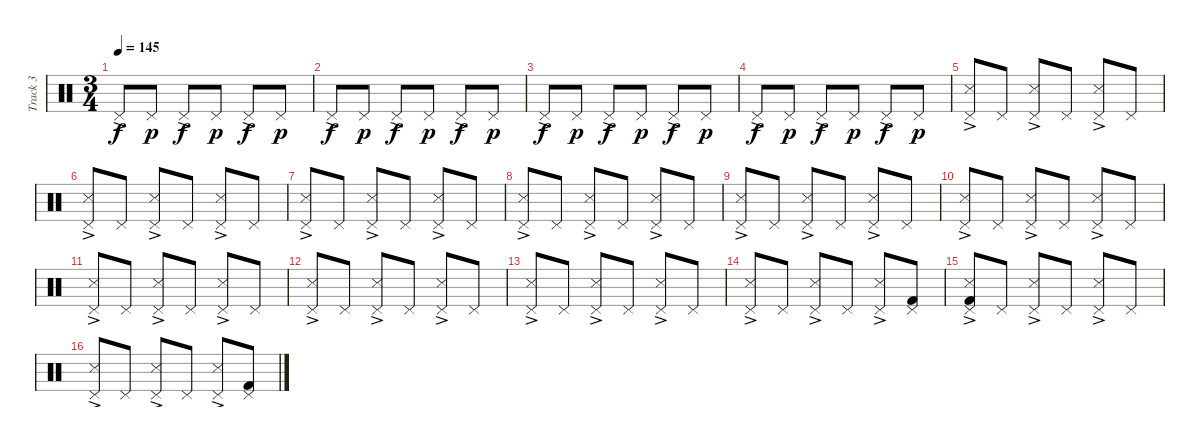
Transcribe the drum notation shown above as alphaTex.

\track ("Track 3" "Track 3") {instrument percussion}
\staff {score}
\articulation defaults
\ts (3 4)
\tempo 145
\clef neutral
\ks c "Pedal Hi-Hat (hit)"{ac}.8{dy f} "Pedal Hi-Hat (hit)".8{dy p} "Pedal Hi-Hat (hit)"{ac}.8{dy f} "Pedal Hi-Hat (hit)".8{dy p} "Pedal Hi-Hat (hit)"{ac}.8{dy f} "Pedal Hi-Hat (hit)".8{dy p}
|
"Pedal Hi-Hat (hit)"{ac}.8{dy f} "Pedal Hi-Hat (hit)".8{dy p} "Pedal Hi-Hat (hit)"{ac}.8{dy f} "Pedal Hi-Hat (hit)".8{dy p} "Pedal Hi-Hat (hit)"{ac}.8{dy f} "Pedal Hi-Hat (hit)".8{dy p} |
"Pedal Hi-Hat (hit)"{ac}.8{dy f} "Pedal Hi-Hat (hit)".8{dy p} "Pedal Hi-Hat (hit)"{ac}.8{dy f} "Pedal Hi-Hat (hit)".8{dy p} "Pedal Hi-Hat (hit)"{ac}.8{dy f} "Pedal Hi-Hat (hit)".8{dy p} |
"Pedal Hi-Hat (hit)"{ac}.8{dy f} "Pedal Hi-Hat (hit)".8{dy p} "Pedal Hi-Hat (hit)"{ac}.8{dy f} "Pedal Hi-Hat (hit)".8{dy p} "Pedal Hi-Hat (hit)"{ac}.8{dy f} "Pedal Hi-Hat (hit)".8{dy p} |
("Pedal Hi-Hat (hit)"{ac} "Snare (side stick) 3").8 "Pedal Hi-Hat (hit)".8 ("Pedal Hi-Hat (hit)"{ac} "Snare (side stick) 3").8 "Pedal Hi-Hat (hit)".8 ("Pedal Hi-Hat (hit)"{ac} "Snare (side stick) 3").8 "Pedal Hi-Hat (hit)".8 |
("Pedal Hi-Hat (hit)"{ac} "Snare (side stick) 3").8 "Pedal Hi-Hat (hit)".8 ("Pedal Hi-Hat (hit)"{ac} "Snare (side stick) 3").8 "Pedal Hi-Hat (hit)".8 ("Pedal Hi-Hat (hit)"{ac} "Snare (side stick) 3").8 "Pedal Hi-Hat (hit)".8 |
("Pedal Hi-Hat (hit)"{ac} "Snare (side stick) 3").8 "Pedal Hi-Hat (hit)".8 ("Pedal Hi-Hat (hit)"{ac} "Snare (side stick) 3").8 "Pedal Hi-Hat (hit)".8 ("Pedal Hi-Hat (hit)"{ac} "Snare (side stick) 3").8 "Pedal Hi-Hat (hit)".8 |
("Pedal Hi-Hat (hit)"{ac} "Snare (side stick) 3").8 "Pedal Hi-Hat (hit)".8 ("Pedal Hi-Hat (hit)"{ac} "Snare (side stick) 3").8 "Pedal Hi-Hat (hit)".8 ("Pedal Hi-Hat (hit)"{ac} "Snare (side stick) 3").8 "Pedal Hi-Hat (hit)".8 |
("Pedal Hi-Hat (hit)"{ac} "Snare (side stick) 3").8 "Pedal Hi-Hat (hit)".8 ("Pedal Hi-Hat (hit)"{ac} "Snare (side stick) 3").8 "Pedal Hi-Hat (hit)".8 ("Pedal Hi-Hat (hit)"{ac} "Snare (side stick) 3").8 "Pedal Hi-Hat (hit)".8 |
("Pedal Hi-Hat (hit)"{ac} "Snare (side stick) 3").8 "Pedal Hi-Hat (hit)".8 ("Pedal Hi-Hat (hit)"{ac} "Snare (side stick) 3").8 "Pedal Hi-Hat (hit)".8 ("Pedal Hi-Hat (hit)"{ac} "Snare (side stick) 3").8 "Pedal Hi-Hat (hit)".8 |
("Pedal Hi-Hat (hit)"{ac} "Snare (side stick) 3").8 "Pedal Hi-Hat (hit)".8 ("Pedal Hi-Hat (hit)"{ac} "Snare (side stick) 3").8 "Pedal Hi-Hat (hit)".8 ("Pedal Hi-Hat (hit)"{ac} "Snare (side stick) 3").8 "Pedal Hi-Hat (hit)".8 |
("Pedal Hi-Hat (hit)"{ac} "Snare (side stick) 3").8 "Pedal Hi-Hat (hit)".8 ("Pedal Hi-Hat (hit)"{ac} "Snare (side stick) 3").8 "Pedal Hi-Hat (hit)".8 ("Pedal Hi-Hat (hit)"{ac} "Snare (side stick) 3").8 "Pedal Hi-Hat (hit)".8 |
("Pedal Hi-Hat (hit)"{ac} "Snare (side stick) 3").8 "Pedal Hi-Hat (hit)".8 ("Pedal Hi-Hat (hit)"{ac} "Snare (side stick) 3").8 "Pedal Hi-Hat (hit)".8 ("Pedal Hi-Hat (hit)"{ac} "Snare (side stick) 3").8 "Pedal Hi-Hat (hit)".8 |
("Pedal Hi-Hat (hit)"{ac} "Snare (side stick) 3").8 "Pedal Hi-Hat (hit)".8 ("Pedal Hi-Hat (hit)"{ac} "Snare (side stick) 3").8 "Pedal Hi-Hat (hit)".8 ("Pedal Hi-Hat (hit)"{ac} "Snare (side stick) 3").8 ("Pedal Hi-Hat (hit)" "Kick (hit) 2").8 |
("Pedal Hi-Hat (hit)"{ac} "Snare (side stick) 3" "Kick (hit) 2").8 "Pedal Hi-Hat (hit)".8 ("Pedal Hi-Hat (hit)"{ac} "Snare (side stick) 3").8 "Pedal Hi-Hat (hit)".8 ("Pedal Hi-Hat (hit)"{ac} "Snare (side stick) 3").8 "Pedal Hi-Hat (hit)".8 |
("Pedal Hi-Hat (hit)"{ac} "Snare (side stick) 3").8 "Pedal Hi-Hat (hit)".8 ("Pedal Hi-Hat (hit)"{ac} "Snare (side stick) 3").8 "Pedal Hi-Hat (hit)".8 ("Pedal Hi-Hat (hit)"{ac} "Snare (side stick) 3").8 ("Pedal Hi-Hat (hit)" "Kick (hit) 2").8
